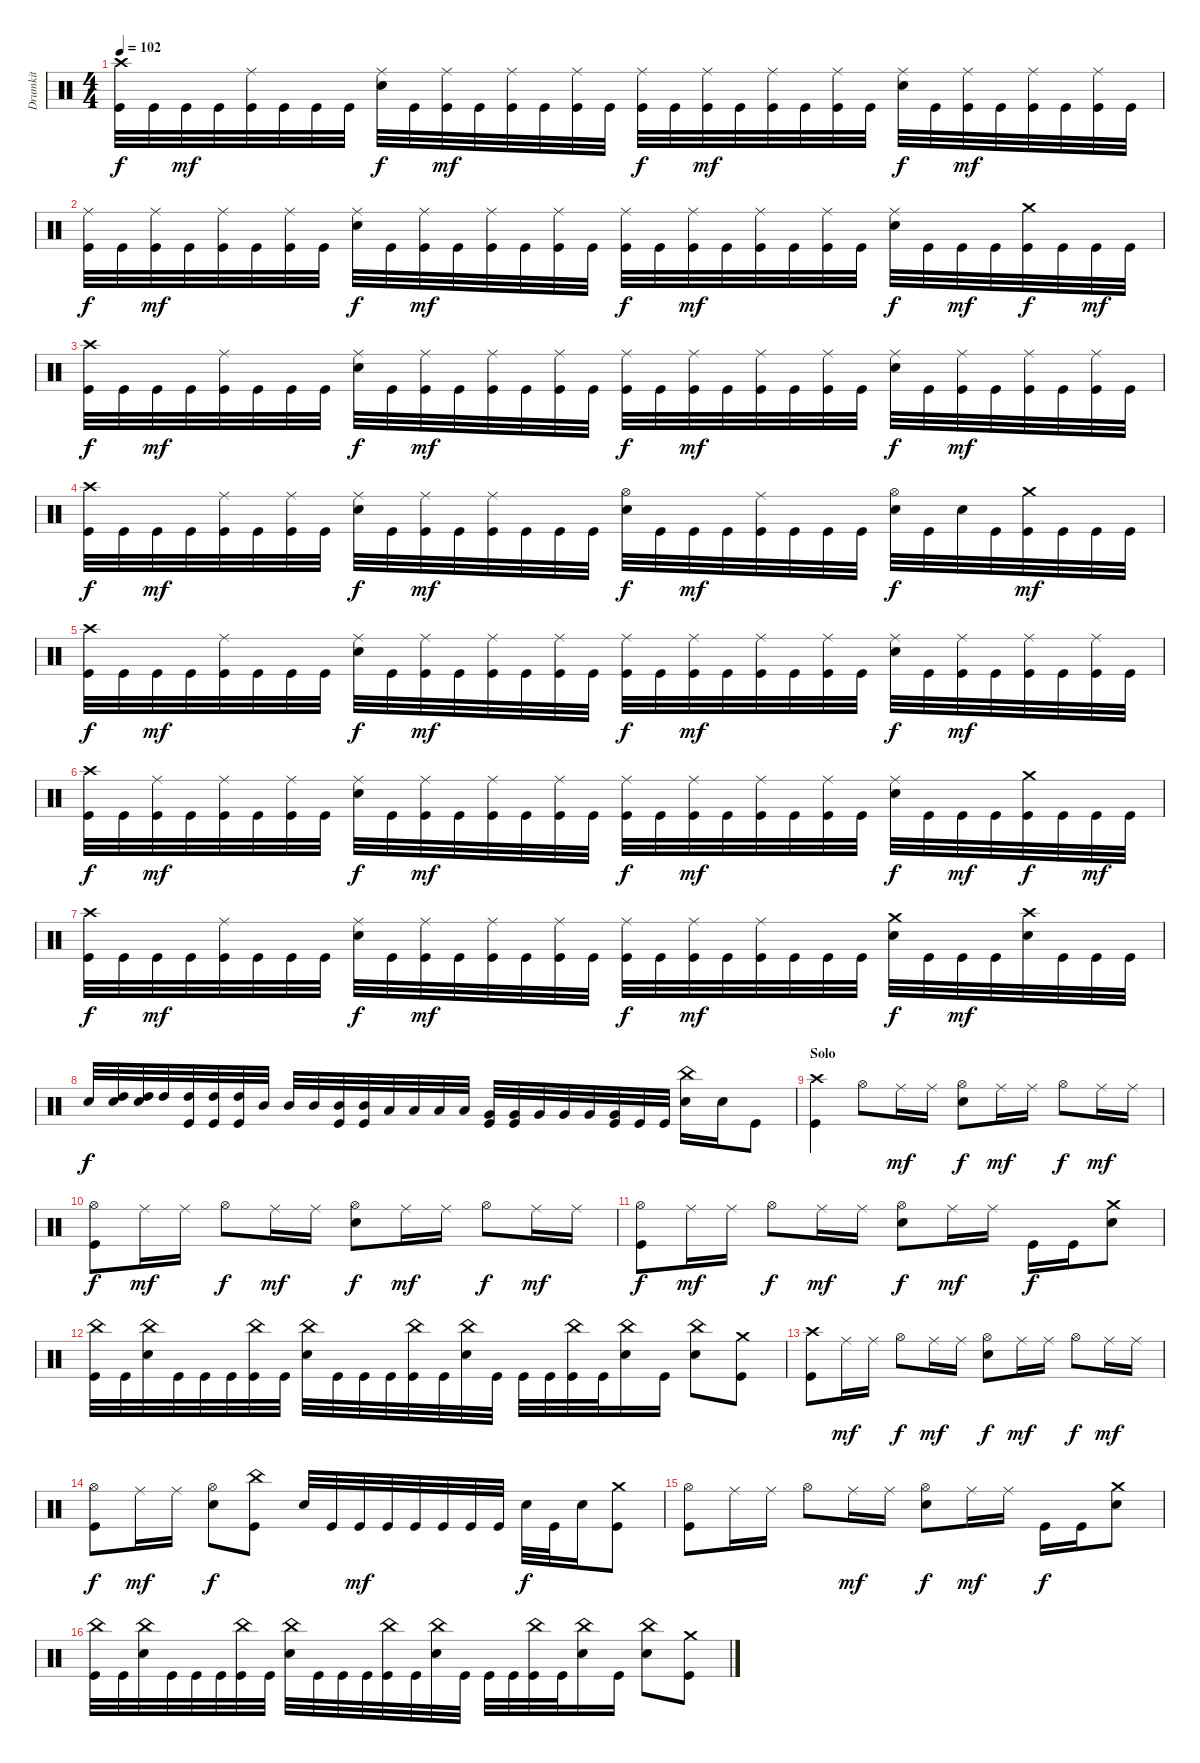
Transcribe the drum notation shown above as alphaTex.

\track ("Drumkit" "Drumkit") {instrument percussion}
\staff {score}
\articulation defaults
\ts (4 4)
\tempo 102
\clef neutral
\ks c
("Kick (hit)" "Crash high (hit)").32{dy f} "Kick (hit)".32 "Kick (hit)".32{dy mf} "Kick (hit)".32 ("Kick (hit)" "Ride (middle)").32 "Kick (hit)".32 "Kick (hit)".32 "Kick (hit)".32 ("Snare (hit) 2" "Ride (middle)").32{dy f} "Kick (hit)".32 ("Kick (hit)" "Ride (middle)").32{dy mf} "Kick (hit)".32 ("Kick (hit)" "Ride (middle)").32 "Kick (hit)".32 ("Kick (hit)" "Ride (middle)").32 "Kick (hit)".32 ("Kick (hit)" "Ride (middle)").32{dy f} "Kick (hit)".32 ("Kick (hit)" "Ride (middle)").32{dy mf} "Kick (hit)".32 ("Kick (hit)" "Ride (middle)").32 "Kick (hit)".32 ("Kick (hit)" "Ride (middle)").32 "Kick (hit)".32 ("Snare (hit) 2" "Ride (middle)").32{dy f} "Kick (hit)".32 ("Kick (hit)" "Ride (middle)").32{dy mf} "Kick (hit)".32 ("Kick (hit)" "Ride (middle)").32 "Kick (hit)".32 ("Kick (hit)" "Ride (middle)").32 "Kick (hit)".32 |
("Kick (hit)" "Ride (middle)").32{dy f} "Kick (hit)".32 ("Kick (hit)" "Ride (middle)").32{dy mf} "Kick (hit)".32 ("Kick (hit)" "Ride (middle)").32 "Kick (hit)".32 ("Kick (hit)" "Ride (middle)").32 "Kick (hit)".32 ("Snare (hit) 2" "Ride (middle)").32{dy f} "Kick (hit)".32 ("Kick (hit)" "Ride (middle)").32{dy mf} "Kick (hit)".32 ("Kick (hit)" "Ride (middle)").32 "Kick (hit)".32 ("Kick (hit)" "Ride (middle)").32 "Kick (hit)".32 ("Kick (hit)" "Ride (middle)").32{dy f} "Kick (hit)".32 ("Kick (hit)" "Ride (middle)").32{dy mf} "Kick (hit)".32 ("Kick (hit)" "Ride (middle)").32 "Kick (hit)".32 ("Kick (hit)" "Ride (middle)").32 "Kick (hit)".32 ("Snare (hit) 2" "Ride (middle)").32{dy f} "Kick (hit)".32 "Kick (hit)".32{dy mf} "Kick (hit)".32 ("Kick (hit)" "Crash medium (hit)").32{dy f} "Kick (hit)".32 "Kick (hit)".32{dy mf} "Kick (hit)".32 |
("Kick (hit)" "Crash high (hit)").32{dy f} "Kick (hit)".32 "Kick (hit)".32{dy mf} "Kick (hit)".32 ("Kick (hit)" "Ride (middle)").32 "Kick (hit)".32 "Kick (hit)".32 "Kick (hit)".32 ("Snare (hit) 2" "Ride (middle)").32{dy f} "Kick (hit)".32 ("Kick (hit)" "Ride (middle)").32{dy mf} "Kick (hit)".32 ("Kick (hit)" "Ride (middle)").32 "Kick (hit)".32 ("Kick (hit)" "Ride (middle)").32 "Kick (hit)".32 ("Kick (hit)" "Ride (middle)").32{dy f} "Kick (hit)".32 ("Kick (hit)" "Ride (middle)").32{dy mf} "Kick (hit)".32 ("Kick (hit)" "Ride (middle)").32 "Kick (hit)".32 ("Kick (hit)" "Ride (middle)").32 "Kick (hit)".32 ("Snare (hit) 2" "Ride (middle)").32{dy f} "Kick (hit)".32 ("Kick (hit)" "Ride (middle)").32{dy mf} "Kick (hit)".32 ("Kick (hit)" "Ride (middle)").32 "Kick (hit)".32 ("Kick (hit)" "Ride (middle)").32 "Kick (hit)".32 |
("Kick (hit)" "Crash high (hit)").32{dy f} "Kick (hit)".32 "Kick (hit)".32{dy mf} "Kick (hit)".32 ("Kick (hit)" "Ride (middle)").32 "Kick (hit)".32 ("Kick (hit)" "Ride (middle)").32 "Kick (hit)".32 ("Snare (hit) 2" "Ride (middle)").32{dy f} "Kick (hit)".32 ("Kick (hit)" "Ride (middle)").32{dy mf} "Kick (hit)".32 ("Kick (hit)" "Ride (middle)").32 "Kick (hit)".32 "Kick (hit)".32 "Kick (hit)".32 ("Snare (hit) 2" "Hi-Hat (open)").32{dy f} "Kick (hit)".32 "Kick (hit)".32{dy mf} "Kick (hit)".32 ("Kick (hit)" "Ride (middle)").32 "Kick (hit)".32 "Kick (hit)".32 "Kick (hit)".32 ("Snare (hit) 2" "Hi-Hat (open)").32{dy f} "Kick (hit)".32 "Snare (hit) 2".32 "Kick (hit)".32 ("Kick (hit)" "Crash medium (hit)").32{dy mf} "Kick (hit)".32 "Kick (hit)".32 "Kick (hit)".32 |
("Kick (hit)" "Crash high (hit)").32{dy f} "Kick (hit)".32 "Kick (hit)".32{dy mf} "Kick (hit)".32 ("Kick (hit)" "Ride (middle)").32 "Kick (hit)".32 "Kick (hit)".32 "Kick (hit)".32 ("Snare (hit) 2" "Ride (middle)").32{dy f} "Kick (hit)".32 ("Kick (hit)" "Ride (middle)").32{dy mf} "Kick (hit)".32 ("Kick (hit)" "Ride (middle)").32 "Kick (hit)".32 ("Kick (hit)" "Ride (middle)").32 "Kick (hit)".32 ("Kick (hit)" "Ride (middle)").32{dy f} "Kick (hit)".32 ("Kick (hit)" "Ride (middle)").32{dy mf} "Kick (hit)".32 ("Kick (hit)" "Ride (middle)").32 "Kick (hit)".32 ("Kick (hit)" "Ride (middle)").32 "Kick (hit)".32 ("Snare (hit) 2" "Ride (middle)").32{dy f} "Kick (hit)".32 ("Kick (hit)" "Ride (middle)").32{dy mf} "Kick (hit)".32 ("Kick (hit)" "Ride (middle)").32 "Kick (hit)".32 ("Kick (hit)" "Ride (middle)").32 "Kick (hit)".32 |
("Kick (hit)" "Crash high (hit)").32{dy f} "Kick (hit)".32 ("Kick (hit)" "Ride (middle)").32{dy mf} "Kick (hit)".32 ("Kick (hit)" "Ride (middle)").32 "Kick (hit)".32 ("Kick (hit)" "Ride (middle)").32 "Kick (hit)".32 ("Snare (hit) 2" "Ride (middle)").32{dy f} "Kick (hit)".32 ("Kick (hit)" "Ride (middle)").32{dy mf} "Kick (hit)".32 ("Kick (hit)" "Ride (middle)").32 "Kick (hit)".32 ("Kick (hit)" "Ride (middle)").32 "Kick (hit)".32 ("Kick (hit)" "Ride (middle)").32{dy f} "Kick (hit)".32 ("Kick (hit)" "Ride (middle)").32{dy mf} "Kick (hit)".32 ("Kick (hit)" "Ride (middle)").32 "Kick (hit)".32 ("Kick (hit)" "Ride (middle)").32 "Kick (hit)".32 ("Snare (hit) 2" "Ride (middle)").32{dy f} "Kick (hit)".32 "Kick (hit)".32{dy mf} "Kick (hit)".32 ("Kick (hit)" "Crash medium (hit)").32{dy f} "Kick (hit)".32 "Kick (hit)".32{dy mf} "Kick (hit)".32 |
("Kick (hit)" "Crash high (hit)").32{dy f} "Kick (hit)".32 "Kick (hit)".32{dy mf} "Kick (hit)".32 ("Kick (hit)" "Ride (middle)").32 "Kick (hit)".32 "Kick (hit)".32 "Kick (hit)".32 ("Snare (hit) 2" "Ride (middle)").32{dy f} "Kick (hit)".32 ("Kick (hit)" "Ride (middle)").32{dy mf} "Kick (hit)".32 ("Kick (hit)" "Ride (middle)").32 "Kick (hit)".32 ("Kick (hit)" "Ride (middle)").32 "Kick (hit)".32 ("Kick (hit)" "Ride (middle)").32{dy f} "Kick (hit)".32 ("Kick (hit)" "Ride (middle)").32{dy mf} "Kick (hit)".32 ("Kick (hit)" "Ride (middle)").32 "Kick (hit)".32 "Kick (hit)".32 "Kick (hit)".32 ("Snare (hit) 2" "Crash medium (hit)").32{dy f} "Kick (hit)".32 "Kick (hit)".32{dy mf} "Kick (hit)".32 ("Crash high (hit)" "Snare (hit) 2").32 "Kick (hit)".32 "Kick (hit)".32 "Kick (hit)".32 |
"Snare (hit) 2".32{dy f} ("Snare (hit) 2" "High Tom (hit)").32 ("Snare (hit) 2" "High Tom (hit)").32 "High Tom (hit)".32 ("Kick (hit)" "High Tom (hit)").32 ("Kick (hit)" "High Tom (hit)").32 ("Kick (hit)" "High Tom (hit)").32 "Mid Tom (hit)".32 "Mid Tom (hit)".32 "Mid Tom (hit)".32 ("Mid Tom (hit)" "Kick (hit)").32 ("Mid Tom (hit)" "Kick (hit)").32 "Low Tom (hit)".32 "Low Tom (hit)".32 "Low Tom (hit)".32 "Low Tom (hit)".32 ("Kick (hit)" "Very Low Tom (hit)").32 ("Kick (hit)" "Very Low Tom (hit)").32 "Very Low Tom (hit)".32 "Very Low Tom (hit)".32 "Very Low Tom (hit)".32 ("Kick (hit)" "Very Low Tom (hit)").32 "Kick (hit)".32 "Kick (hit)".32 ("Snare (hit) 2" "China (hit)").16 "Snare (hit) 2".16 "Kick (hit)".8 |
\section ("" "Solo")
("Kick (hit)" "Crash high (hit)").4 "Hi-Hat (open)".8 "Ride (middle)".16{dy mf} "Ride (middle)".16 ("Hi-Hat (open)" "Snare (hit) 2").8{dy f} "Ride (middle)".16{dy mf} "Ride (middle)".16 "Hi-Hat (open)".8{dy f} "Ride (middle)".16{dy mf} "Ride (middle)".16 |
("Kick (hit)" "Hi-Hat (open)").8{dy f} "Ride (middle)".16{dy mf} "Ride (middle)".16 "Hi-Hat (open)".8{dy f} "Ride (middle)".16{dy mf} "Ride (middle)".16 ("Hi-Hat (open)" "Snare (hit) 2").8{dy f} "Ride (middle)".16{dy mf} "Ride (middle)".16 "Hi-Hat (open)".8{dy f} "Ride (middle)".16{dy mf} "Ride (middle)".16 |
("Kick (hit)" "Hi-Hat (open)").8{dy f} "Ride (middle)".16{dy mf} "Ride (middle)".16 "Hi-Hat (open)".8{dy f} "Ride (middle)".16{dy mf} "Ride (middle)".16 ("Hi-Hat (open)" "Snare (hit) 2").8{dy f} "Ride (middle)".16{dy mf} "Ride (middle)".16 "Kick (hit)".16{dy f} "Kick (hit)".16 ("Snare (hit) 2" "Crash medium (hit)").8 |
("Kick (hit)" "China (hit)").32 "Kick (hit)".32 ("Snare (hit) 2" "China (hit)").32 "Kick (hit)".32 "Kick (hit)".32 "Kick (hit)".32 ("Kick (hit)" "China (hit)").32 "Kick (hit)".32 ("Snare (hit) 2" "China (hit)").32 "Kick (hit)".32 "Kick (hit)".32 "Kick (hit)".32 ("Kick (hit)" "China (hit)").32 "Kick (hit)".32 ("Snare (hit) 2" "China (hit)").32 "Kick (hit)".32 "Kick (hit)".32 "Kick (hit)".32 ("Kick (hit)" "China (hit)").32 "Kick (hit)".32 ("Snare (hit) 2" "China (hit)").16 "Kick (hit)".16 ("Snare (hit) 2" "China (hit)").8 ("Kick (hit)" "Crash medium (hit)").8 |
("Kick (hit)" "Crash high (hit)").8 "Ride (middle)".16{dy mf} "Ride (middle)".16 "Hi-Hat (open)".8{dy f} "Ride (middle)".16{dy mf} "Ride (middle)".16 ("Hi-Hat (open)" "Snare (hit) 2").8{dy f} "Ride (middle)".16{dy mf} "Ride (middle)".16 "Hi-Hat (open)".8{dy f} "Ride (middle)".16{dy mf} "Ride (middle)".16 |
("Kick (hit)" "Hi-Hat (open)").8{dy f} "Ride (middle)".16{dy mf} "Ride (middle)".16 ("Snare (hit) 2" "Hi-Hat (open)").8{dy f} ("Kick (hit)" "China (hit)").8 "Snare (hit) 2".32 "Kick (hit)".32 "Kick (hit)".32{dy mf} "Kick (hit)".32 "Kick (hit)".32 "Kick (hit)".32 "Kick (hit)".32 "Kick (hit)".32 "Snare (hit) 2".32{dy f} "Kick (hit)".32 "Snare (hit) 2".16 ("Kick (hit)" "Crash medium (hit)").8 |
("Kick (hit)" "Hi-Hat (open)").8 "Ride (middle)".16 "Ride (middle)".16 "Hi-Hat (open)".8 "Ride (middle)".16{dy mf} "Ride (middle)".16 ("Hi-Hat (open)" "Snare (hit) 2").8{dy f} "Ride (middle)".16{dy mf} "Ride (middle)".16 "Kick (hit)".16{dy f} "Kick (hit)".16 ("Snare (hit) 2" "Crash medium (hit)").8 |
("Kick (hit)" "China (hit)").32 "Kick (hit)".32 ("Snare (hit) 2" "China (hit)").32 "Kick (hit)".32 "Kick (hit)".32 "Kick (hit)".32 ("Kick (hit)" "China (hit)").32 "Kick (hit)".32 ("Snare (hit) 2" "China (hit)").32 "Kick (hit)".32 "Kick (hit)".32 "Kick (hit)".32 ("Kick (hit)" "China (hit)").32 "Kick (hit)".32 ("Snare (hit) 2" "China (hit)").32 "Kick (hit)".32 "Kick (hit)".32 "Kick (hit)".32 ("Kick (hit)" "China (hit)").32 "Kick (hit)".32 ("Snare (hit) 2" "China (hit)").16 "Kick (hit)".16 ("Snare (hit) 2" "China (hit)").8 ("Kick (hit)" "Crash medium (hit)").8
